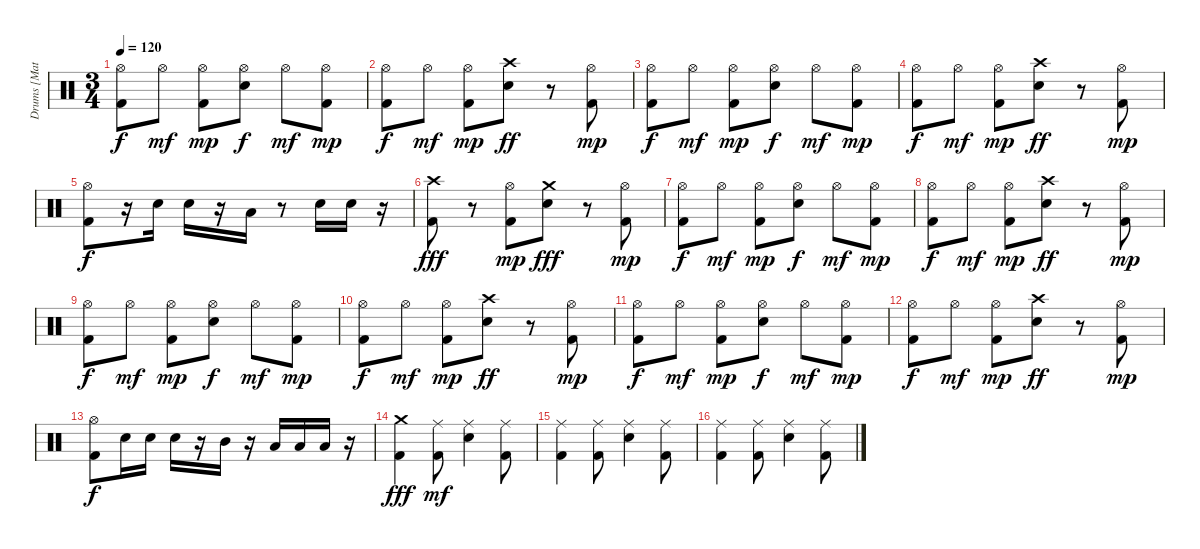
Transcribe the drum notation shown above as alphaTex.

\track ("Drums [Matt]" "Drums [Mat") {instrument percussion}
\staff {score}
\articulation defaults
\ts (3 4)
\tempo 120
\clef neutral
\ks c
("Hi-Hat (open)" "Kick (hit) 2").8{dy f} "Hi-Hat (open)".8{dy mf} ("Hi-Hat (open)" "Kick (hit) 2").8{dy mp} ("Hi-Hat (open)" "Snare (hit) 2").8{dy f} "Hi-Hat (open)".8{dy mf} ("Hi-Hat (open)" "Kick (hit) 2").8{dy mp} |
("Hi-Hat (open)" "Kick (hit) 2").8{dy f} "Hi-Hat (open)".8{dy mf} ("Hi-Hat (open)" "Kick (hit) 2").8{dy mp} ("Crash high (hit)" "Snare (hit) 2").8{dy ff} r.8 ("Hi-Hat (open)" "Kick (hit) 2").8{dy mp} |
("Hi-Hat (open)" "Kick (hit) 2").8{dy f} "Hi-Hat (open)".8{dy mf} ("Hi-Hat (open)" "Kick (hit) 2").8{dy mp} ("Hi-Hat (open)" "Snare (hit) 2").8{dy f} "Hi-Hat (open)".8{dy mf} ("Hi-Hat (open)" "Kick (hit) 2").8{dy mp} |
("Hi-Hat (open)" "Kick (hit) 2").8{dy f} "Hi-Hat (open)".8{dy mf} ("Hi-Hat (open)" "Kick (hit) 2").8{dy mp} ("Crash high (hit)" "Snare (hit) 2").8{dy ff} r.8 ("Hi-Hat (open)" "Kick (hit) 2").8{dy mp} |
("Hi-Hat (open)" "Kick (hit) 2").8{dy f} r.16 "Snare (hit) 2".16 "Snare (hit) 2".16 r.16 "Low Tom (hit)".16 r.8 "Snare (hit) 2".16 "Snare (hit) 2".16 r.16 |
("Crash high (hit)" "Kick (hit) 2").8{dy fff} r.8 ("Hi-Hat (open)" "Kick (hit) 2").8{dy mp} ("Crash medium (hit)" "Snare (hit) 2").8{dy fff} r.8 ("Hi-Hat (open)" "Kick (hit) 2").8{dy mp} |
("Hi-Hat (open)" "Kick (hit) 2").8{dy f} "Hi-Hat (open)".8{dy mf} ("Hi-Hat (open)" "Kick (hit) 2").8{dy mp} ("Hi-Hat (open)" "Snare (hit) 2").8{dy f} "Hi-Hat (open)".8{dy mf} ("Hi-Hat (open)" "Kick (hit) 2").8{dy mp} |
("Hi-Hat (open)" "Kick (hit) 2").8{dy f} "Hi-Hat (open)".8{dy mf} ("Hi-Hat (open)" "Kick (hit) 2").8{dy mp} ("Crash high (hit)" "Snare (hit) 2").8{dy ff} r.8 ("Hi-Hat (open)" "Kick (hit) 2").8{dy mp} |
("Hi-Hat (open)" "Kick (hit) 2").8{dy f} "Hi-Hat (open)".8{dy mf} ("Hi-Hat (open)" "Kick (hit) 2").8{dy mp} ("Hi-Hat (open)" "Snare (hit) 2").8{dy f} "Hi-Hat (open)".8{dy mf} ("Hi-Hat (open)" "Kick (hit) 2").8{dy mp} |
("Hi-Hat (open)" "Kick (hit) 2").8{dy f} "Hi-Hat (open)".8{dy mf} ("Hi-Hat (open)" "Kick (hit) 2").8{dy mp} ("Crash high (hit)" "Snare (hit) 2").8{dy ff} r.8 ("Hi-Hat (open)" "Kick (hit) 2").8{dy mp} |
("Hi-Hat (open)" "Kick (hit) 2").8{dy f} "Hi-Hat (open)".8{dy mf} ("Hi-Hat (open)" "Kick (hit) 2").8{dy mp} ("Hi-Hat (open)" "Snare (hit) 2").8{dy f} "Hi-Hat (open)".8{dy mf} ("Hi-Hat (open)" "Kick (hit) 2").8{dy mp} |
("Hi-Hat (open)" "Kick (hit) 2").8{dy f} "Hi-Hat (open)".8{dy mf} ("Hi-Hat (open)" "Kick (hit) 2").8{dy mp} ("Crash high (hit)" "Snare (hit) 2").8{dy ff} r.8 ("Hi-Hat (open)" "Kick (hit) 2").8{dy mp} |
("Hi-Hat (open)" "Kick (hit) 2").8{dy f} "Snare (hit) 2".16 "Snare (hit) 2".16 "Snare (hit) 2".16 r.16 "Mid Tom (hit)".16 r.16 "Low Tom (hit)".16 "Low Tom (hit)".16 "Low Tom (hit)".16 r.16 |
("Crash medium (hit)" "Kick (hit) 2").4{dy fff} ("Ride (middle)" "Kick (hit) 2").8{dy mf} ("Ride (middle)" "Snare (hit) 2").4 ("Ride (middle)" "Kick (hit) 2").8 |
("Ride (middle)" "Kick (hit) 2").4 ("Ride (middle)" "Kick (hit) 2").8 ("Ride (middle)" "Snare (hit) 2").4 ("Ride (middle)" "Kick (hit) 2").8 |
("Ride (middle)" "Kick (hit) 2").4 ("Ride (middle)" "Kick (hit) 2").8 ("Ride (middle)" "Snare (hit) 2").4 ("Ride (middle)" "Kick (hit) 2").8
